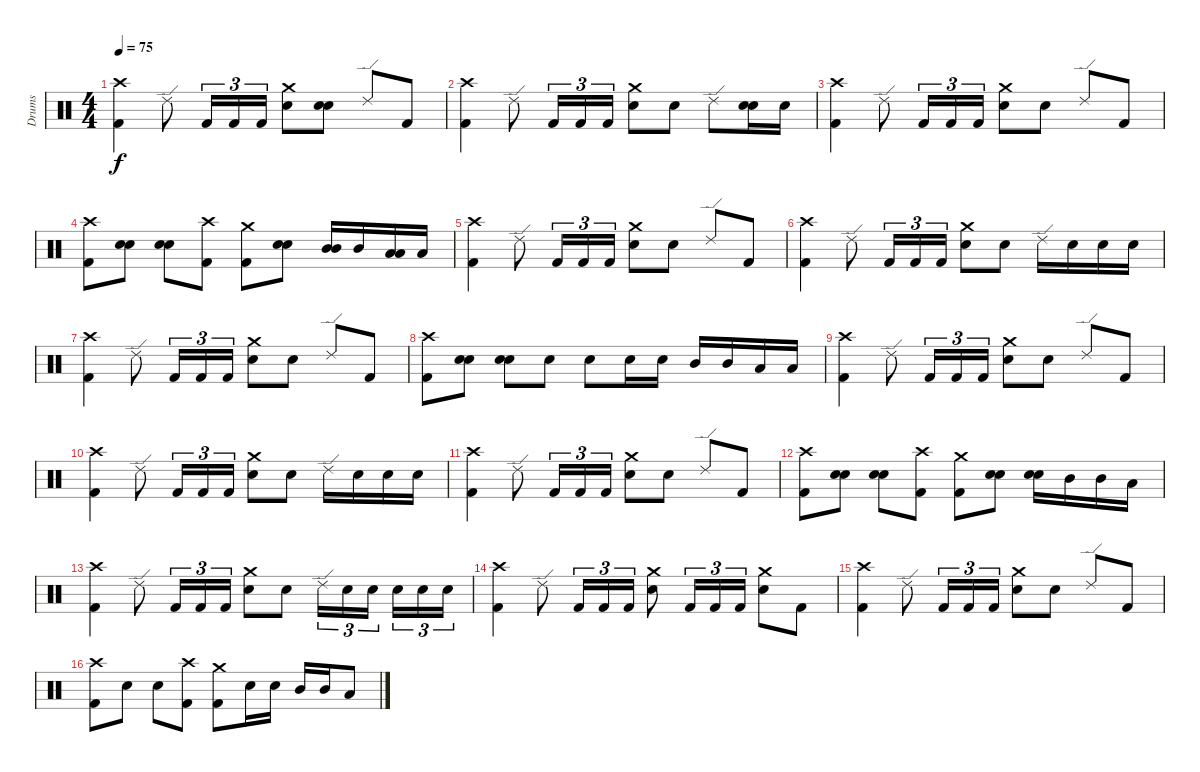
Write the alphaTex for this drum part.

\track ("Drums" "Drums") {instrument percussion}
\staff {score}
\articulation defaults
\ts (4 4)
\tempo 75
\clef neutral
\ks c
("Crash high (hit)" "Kick (hit) 2").4{dy f} "Ride (edge) 2".8 "Kick (hit) 2".16{tu (3 2)} "Kick (hit) 2".16{tu (3 2)} "Kick (hit) 2".16{tu (3 2)} ("Crash medium (hit)" "Electric Snare (hit)").8 ("Electric Snare (hit)" "Electric Snare (hit)").8{bu 60} "Ride (edge) 2".8 "Kick (hit) 2".8 |
("Crash high (hit)" "Kick (hit) 2").4 "Ride (edge) 2".8 "Kick (hit) 2".16{tu (3 2)} "Kick (hit) 2".16{tu (3 2)} "Kick (hit) 2".16{tu (3 2)} ("Crash medium (hit)" "Electric Snare (hit)").8 "Electric Snare (hit)".8 "Ride (edge) 2".8 ("Electric Snare (hit)" "Electric Snare (hit)").16{bu 60} "Electric Snare (hit)".16 |
("Crash high (hit)" "Kick (hit) 2").4 "Ride (edge) 2".8 "Kick (hit) 2".16{tu (3 2)} "Kick (hit) 2".16{tu (3 2)} "Kick (hit) 2".16{tu (3 2)} ("Crash medium (hit)" "Electric Snare (hit)").8 "Electric Snare (hit)".8 "Ride (edge) 2".8 "Kick (hit) 2".8 |
("Crash high (hit)" "Kick (hit) 2").8 ("Electric Snare (hit)" "Electric Snare (hit)").8{bu 60} ("Electric Snare (hit)" "Electric Snare (hit)").8{bu 60} ("Crash high (hit)" "Kick (hit) 2").8 ("Crash medium (hit)" "Kick (hit) 2").8 ("Electric Snare (hit)" "Electric Snare (hit)").8{bu 60} ("Mid Tom (hit)" "Mid Tom (hit)").16{bu 60} "Mid Tom (hit)".16 ("Low Tom (hit)" "Low Tom (hit)").16{bu 60} "Low Tom (hit)".16 |
("Crash high (hit)" "Kick (hit) 2").4 "Ride (edge) 2".8 "Kick (hit) 2".16{tu (3 2)} "Kick (hit) 2".16{tu (3 2)} "Kick (hit) 2".16{tu (3 2)} ("Crash medium (hit)" "Electric Snare (hit)").8 "Electric Snare (hit)".8 "Ride (edge) 2".8 "Kick (hit) 2".8 |
("Crash high (hit)" "Kick (hit) 2").4 "Ride (edge) 2".8 "Kick (hit) 2".16{tu (3 2)} "Kick (hit) 2".16{tu (3 2)} "Kick (hit) 2".16{tu (3 2)} ("Crash medium (hit)" "Electric Snare (hit)").8 "Electric Snare (hit)".8 "Ride (edge) 2".16 "Electric Snare (hit)".16 "Electric Snare (hit)".16 "Electric Snare (hit)".16 |
("Crash high (hit)" "Kick (hit) 2").4 "Ride (edge) 2".8 "Kick (hit) 2".16{tu (3 2)} "Kick (hit) 2".16{tu (3 2)} "Kick (hit) 2".16{tu (3 2)} ("Crash medium (hit)" "Electric Snare (hit)").8 "Electric Snare (hit)".8 "Ride (edge) 2".8 "Kick (hit) 2".8 |
("Crash high (hit)" "Kick (hit) 2").8 ("Electric Snare (hit)" "Electric Snare (hit)").8{bu 60} ("Electric Snare (hit)" "Electric Snare (hit)").8{bu 60} "Electric Snare (hit)".8 "Electric Snare (hit)".8 "Electric Snare (hit)".16 "Electric Snare (hit)".16 "Mid Tom (hit)".16 "Mid Tom (hit)".16 "Low Tom (hit)".16 "Low Tom (hit)".16 |
("Crash high (hit)" "Kick (hit) 2").4 "Ride (edge) 2".8 "Kick (hit) 2".16{tu (3 2)} "Kick (hit) 2".16{tu (3 2)} "Kick (hit) 2".16{tu (3 2)} ("Crash medium (hit)" "Electric Snare (hit)").8 "Electric Snare (hit)".8 "Ride (edge) 2".8 "Kick (hit) 2".8 |
("Crash high (hit)" "Kick (hit) 2").4 "Ride (edge) 2".8 "Kick (hit) 2".16{tu (3 2)} "Kick (hit) 2".16{tu (3 2)} "Kick (hit) 2".16{tu (3 2)} ("Crash medium (hit)" "Electric Snare (hit)").8 "Electric Snare (hit)".8 "Ride (edge) 2".16 "Electric Snare (hit)".16 "Electric Snare (hit)".16 "Electric Snare (hit)".16 |
("Crash high (hit)" "Kick (hit) 2").4 "Ride (edge) 2".8 "Kick (hit) 2".16{tu (3 2)} "Kick (hit) 2".16{tu (3 2)} "Kick (hit) 2".16{tu (3 2)} ("Crash medium (hit)" "Electric Snare (hit)").8 "Electric Snare (hit)".8 "Ride (edge) 2".8 "Kick (hit) 2".8 |
("Crash high (hit)" "Kick (hit) 2").8 ("Electric Snare (hit)" "Electric Snare (hit)").8{bu 60} ("Electric Snare (hit)" "Electric Snare (hit)").8{bu 60} ("Crash high (hit)" "Kick (hit) 2").8 ("Crash medium (hit)" "Kick (hit) 2").8 ("Electric Snare (hit)" "Electric Snare (hit)").8{bu 60} ("Electric Snare (hit)" "Electric Snare (hit)").16{bu 60} "Mid Tom (hit)".16 "Mid Tom (hit)".16 "Low Tom (hit)".16 |
("Crash high (hit)" "Kick (hit) 2").4 "Ride (edge) 2".8 "Kick (hit) 2".16{tu (3 2)} "Kick (hit) 2".16{tu (3 2)} "Kick (hit) 2".16{tu (3 2)} ("Crash medium (hit)" "Electric Snare (hit)").8 "Electric Snare (hit)".8 "Ride (edge) 2".16{tu (3 2)} "Electric Snare (hit)".16{tu (3 2)} "Electric Snare (hit)".16{tu (3 2)} "Electric Snare (hit)".16{tu (3 2)} "Electric Snare (hit)".16{tu (3 2)} "Electric Snare (hit)".16{tu (3 2)} |
("Crash high (hit)" "Kick (hit) 2").4 "Ride (edge) 2".8 "Kick (hit) 2".16{tu (3 2)} "Kick (hit) 2".16{tu (3 2)} "Kick (hit) 2".16{tu (3 2)} ("Crash medium (hit)" "Electric Snare (hit)").8 "Kick (hit) 2".16{tu (3 2)} "Kick (hit) 2".16{tu (3 2)} "Kick (hit) 2".16{tu (3 2)} ("Crash medium (hit)" "Electric Snare (hit)").8 "Kick (hit) 2".8 |
("Crash high (hit)" "Kick (hit) 2").4 "Ride (edge) 2".8 "Kick (hit) 2".16{tu (3 2)} "Kick (hit) 2".16{tu (3 2)} "Kick (hit) 2".16{tu (3 2)} ("Crash medium (hit)" "Electric Snare (hit)").8 "Electric Snare (hit)".8 "Ride (edge) 2".8 "Kick (hit) 2".8 |
("Crash high (hit)" "Kick (hit) 2").8 "Electric Snare (hit)".8 "Electric Snare (hit)".8 ("Crash high (hit)" "Kick (hit) 2").8 ("Crash medium (hit)" "Kick (hit) 2").8 "Electric Snare (hit)".16 "Electric Snare (hit)".16 "Mid Tom (hit)".16 "Mid Tom (hit)".16 "Low Tom (hit)".8
